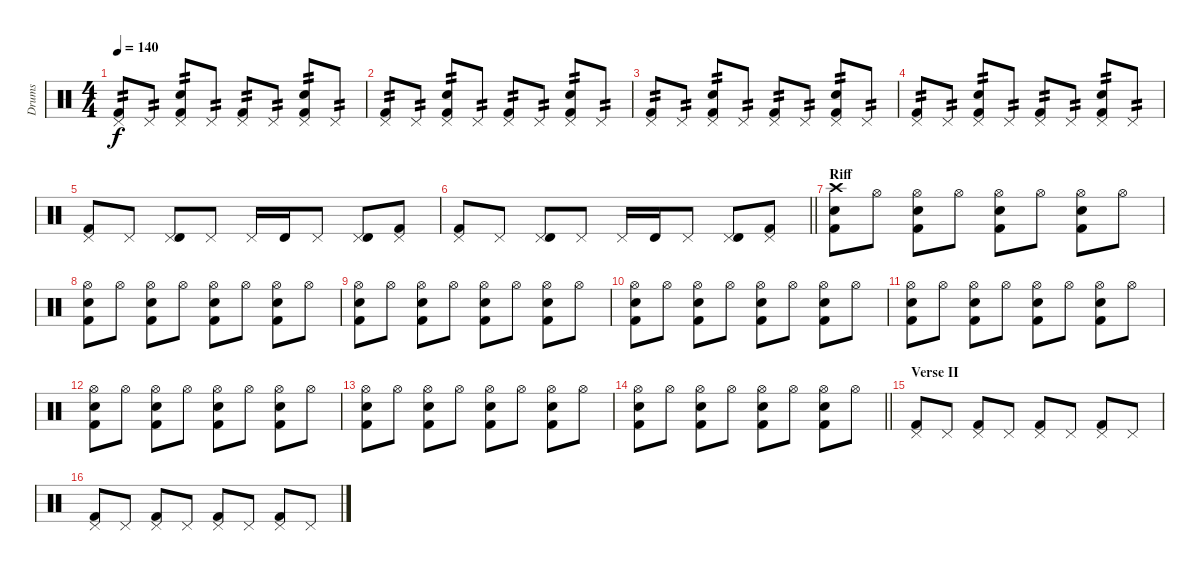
\track ("Drums" "Drums") {instrument percussion}
\staff {score}
\articulation defaults
\ts (4 4)
\tempo 140
\clef neutral
\ks c
("Pedal Hi-Hat (hit)" "Kick (hit) 2").8{tp 2 dy f} "Pedal Hi-Hat (hit)".8{tp 2} ("Pedal Hi-Hat (hit)" "Hand Clap (hit)" "Kick (hit) 2").8{tp 2} "Pedal Hi-Hat (hit)".8{tp 2} ("Pedal Hi-Hat (hit)" "Kick (hit) 2").8{tp 2} "Pedal Hi-Hat (hit)".8{tp 2} ("Pedal Hi-Hat (hit)" "Hand Clap (hit)" "Kick (hit) 2").8{tp 2} "Pedal Hi-Hat (hit)".8{tp 2} |
("Pedal Hi-Hat (hit)" "Kick (hit) 2").8{tp 2} "Pedal Hi-Hat (hit)".8{tp 2} ("Pedal Hi-Hat (hit)" "Hand Clap (hit)" "Kick (hit) 2").8{tp 2} "Pedal Hi-Hat (hit)".8{tp 2} ("Pedal Hi-Hat (hit)" "Kick (hit) 2").8{tp 2} "Pedal Hi-Hat (hit)".8{tp 2} ("Pedal Hi-Hat (hit)" "Hand Clap (hit)" "Kick (hit) 2").8{tp 2} "Pedal Hi-Hat (hit)".8{tp 2} |
("Pedal Hi-Hat (hit)" "Kick (hit) 2").8{tp 2} "Pedal Hi-Hat (hit)".8{tp 2} ("Pedal Hi-Hat (hit)" "Hand Clap (hit)" "Kick (hit) 2").8{tp 2} "Pedal Hi-Hat (hit)".8{tp 2} ("Pedal Hi-Hat (hit)" "Kick (hit) 2").8{tp 2} "Pedal Hi-Hat (hit)".8{tp 2} ("Pedal Hi-Hat (hit)" "Hand Clap (hit)" "Kick (hit) 2").8{tp 2} "Pedal Hi-Hat (hit)".8{tp 2} |
("Pedal Hi-Hat (hit)" "Kick (hit) 2").8{tp 2} "Pedal Hi-Hat (hit)".8{tp 2} ("Pedal Hi-Hat (hit)" "Hand Clap (hit)" "Kick (hit) 2").8{tp 2} "Pedal Hi-Hat (hit)".8{tp 2} ("Pedal Hi-Hat (hit)" "Kick (hit) 2").8{tp 2} "Pedal Hi-Hat (hit)".8{tp 2} ("Pedal Hi-Hat (hit)" "Hand Clap (hit)" "Kick (hit) 2").8{tp 2} "Pedal Hi-Hat (hit)".8{tp 2} |
("Pedal Hi-Hat (hit)" "Kick (hit) 2").8 "Pedal Hi-Hat (hit)".8 ("Pedal Hi-Hat (hit)" "Timbale high (hit)").8 "Pedal Hi-Hat (hit)".8 "Pedal Hi-Hat (hit)".16 "Timbale high (hit)".16 "Pedal Hi-Hat (hit)".8 ("Pedal Hi-Hat (hit)" "Timbale high (hit)").8 ("Pedal Hi-Hat (hit)" "Kick (hit) 2").8 |
\barLineRight lightlight
("Pedal Hi-Hat (hit)" "Kick (hit) 2").8 "Pedal Hi-Hat (hit)".8 ("Pedal Hi-Hat (hit)" "Timbale high (hit)").8 "Pedal Hi-Hat (hit)".8 "Pedal Hi-Hat (hit)".16 "Timbale high (hit)".16 "Pedal Hi-Hat (hit)".8 ("Pedal Hi-Hat (hit)" "Timbale high (hit)").8 ("Pedal Hi-Hat (hit)" "Kick (hit) 2").8 |
\section ("" "Riff")
("Crash high (hit)" "Snare (hit) 2" "Kick (hit) 2").8 "Hi-Hat (open)".8 ("Hi-Hat (open)" "Snare (hit) 2" "Kick (hit) 2").8 "Hi-Hat (open)".8 ("Hi-Hat (open)" "Snare (hit) 2" "Kick (hit) 2").8 "Hi-Hat (open)".8 ("Hi-Hat (open)" "Snare (hit) 2" "Kick (hit) 2").8 "Hi-Hat (open)".8 |
("Hi-Hat (open)" "Snare (hit) 2" "Kick (hit) 2").8 "Hi-Hat (open)".8 ("Hi-Hat (open)" "Snare (hit) 2" "Kick (hit) 2").8 "Hi-Hat (open)".8 ("Hi-Hat (open)" "Snare (hit) 2" "Kick (hit) 2").8 "Hi-Hat (open)".8 ("Hi-Hat (open)" "Snare (hit) 2" "Kick (hit) 2").8 "Hi-Hat (open)".8 |
("Hi-Hat (open)" "Snare (hit) 2" "Kick (hit) 2").8 "Hi-Hat (open)".8 ("Hi-Hat (open)" "Snare (hit) 2" "Kick (hit) 2").8 "Hi-Hat (open)".8 ("Hi-Hat (open)" "Snare (hit) 2" "Kick (hit) 2").8 "Hi-Hat (open)".8 ("Hi-Hat (open)" "Snare (hit) 2" "Kick (hit) 2").8 "Hi-Hat (open)".8 |
("Hi-Hat (open)" "Snare (hit) 2" "Kick (hit) 2").8 "Hi-Hat (open)".8 ("Hi-Hat (open)" "Snare (hit) 2" "Kick (hit) 2").8 "Hi-Hat (open)".8 ("Hi-Hat (open)" "Snare (hit) 2" "Kick (hit) 2").8 "Hi-Hat (open)".8 ("Hi-Hat (open)" "Snare (hit) 2" "Kick (hit) 2").8 "Hi-Hat (open)".8 |
("Hi-Hat (open)" "Snare (hit) 2" "Kick (hit) 2").8 "Hi-Hat (open)".8 ("Hi-Hat (open)" "Snare (hit) 2" "Kick (hit) 2").8 "Hi-Hat (open)".8 ("Hi-Hat (open)" "Snare (hit) 2" "Kick (hit) 2").8 "Hi-Hat (open)".8 ("Hi-Hat (open)" "Snare (hit) 2" "Kick (hit) 2").8 "Hi-Hat (open)".8 |
("Hi-Hat (open)" "Snare (hit) 2" "Kick (hit) 2").8 "Hi-Hat (open)".8 ("Hi-Hat (open)" "Snare (hit) 2" "Kick (hit) 2").8 "Hi-Hat (open)".8 ("Hi-Hat (open)" "Snare (hit) 2" "Kick (hit) 2").8 "Hi-Hat (open)".8 ("Hi-Hat (open)" "Snare (hit) 2" "Kick (hit) 2").8 "Hi-Hat (open)".8 |
("Hi-Hat (open)" "Snare (hit) 2" "Kick (hit) 2").8 "Hi-Hat (open)".8 ("Hi-Hat (open)" "Snare (hit) 2" "Kick (hit) 2").8 "Hi-Hat (open)".8 ("Hi-Hat (open)" "Snare (hit) 2" "Kick (hit) 2").8 "Hi-Hat (open)".8 ("Hi-Hat (open)" "Snare (hit) 2" "Kick (hit) 2").8 "Hi-Hat (open)".8 |
\barLineRight lightlight
("Hi-Hat (open)" "Snare (hit) 2" "Kick (hit) 2").8 "Hi-Hat (open)".8 ("Hi-Hat (open)" "Snare (hit) 2" "Kick (hit) 2").8 "Hi-Hat (open)".8 ("Hi-Hat (open)" "Snare (hit) 2" "Kick (hit) 2").8 "Hi-Hat (open)".8 ("Hi-Hat (open)" "Snare (hit) 2" "Kick (hit) 2").8 "Hi-Hat (open)".8 |
\section ("" "Verse II")
("Pedal Hi-Hat (hit)" "Kick (hit) 2").8 "Pedal Hi-Hat (hit)".8 ("Pedal Hi-Hat (hit)" "Kick (hit) 2").8 "Pedal Hi-Hat (hit)".8 ("Pedal Hi-Hat (hit)" "Kick (hit) 2").8 "Pedal Hi-Hat (hit)".8 ("Pedal Hi-Hat (hit)" "Kick (hit) 2").8 "Pedal Hi-Hat (hit)".8 |
("Pedal Hi-Hat (hit)" "Kick (hit) 2").8 "Pedal Hi-Hat (hit)".8 ("Pedal Hi-Hat (hit)" "Kick (hit) 2").8 "Pedal Hi-Hat (hit)".8 ("Pedal Hi-Hat (hit)" "Kick (hit) 2").8 "Pedal Hi-Hat (hit)".8 ("Pedal Hi-Hat (hit)" "Kick (hit) 2").8 "Pedal Hi-Hat (hit)".8
